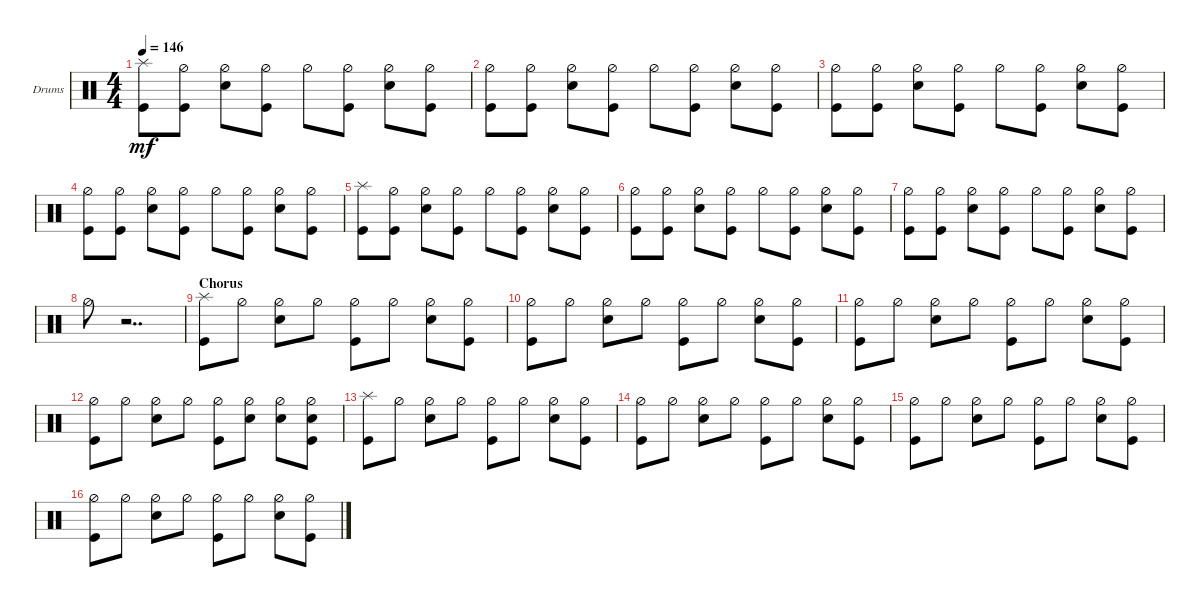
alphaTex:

\defaultSystemsLayout 4
\bracketExtendMode groupsimilarinstruments
\firstSystemTrackNameOrientation horizontal
\otherSystemsTrackNameOrientation horizontal
\track ("Drums" "Drums") {instrument percussion}
\staff {score}
\articulation defaults
\ts (4 4)
\tempo 146
\clef neutral
\ks c
("Kick (hit)" "Splash (hit)").8{dy mf} ("Kick (hit)" "Hi-Hat (half)").8 ("Snare (hit) 2" "Hi-Hat (half)").8 ("Kick (hit)" "Hi-Hat (half)").8 "Hi-Hat (half)".8 ("Kick (hit)" "Hi-Hat (half)").8 ("Snare (hit) 2" "Hi-Hat (half)").8 ("Kick (hit)" "Hi-Hat (half)").8 |
("Kick (hit)" "Hi-Hat (half)").8 ("Kick (hit)" "Hi-Hat (half)").8 ("Snare (hit) 2" "Hi-Hat (half)").8 ("Kick (hit)" "Hi-Hat (half)").8 "Hi-Hat (half)".8 ("Kick (hit)" "Hi-Hat (half)").8 ("Snare (hit) 2" "Hi-Hat (half)").8 ("Kick (hit)" "Hi-Hat (half)").8 |
("Kick (hit)" "Hi-Hat (half)").8 ("Kick (hit)" "Hi-Hat (half)").8 ("Snare (hit) 2" "Hi-Hat (half)").8 ("Kick (hit)" "Hi-Hat (half)").8 "Hi-Hat (half)".8 ("Kick (hit)" "Hi-Hat (half)").8 ("Snare (hit) 2" "Hi-Hat (half)").8 ("Kick (hit)" "Hi-Hat (half)").8 |
("Kick (hit)" "Hi-Hat (half)").8 ("Kick (hit)" "Hi-Hat (half)").8 ("Snare (hit) 2" "Hi-Hat (half)").8 ("Kick (hit)" "Hi-Hat (half)").8 "Hi-Hat (half)".8 ("Kick (hit)" "Hi-Hat (half)").8 ("Snare (hit) 2" "Hi-Hat (half)").8 ("Kick (hit)" "Hi-Hat (half)").8 |
("Kick (hit)" "Splash (hit)").8 ("Kick (hit)" "Hi-Hat (half)").8 ("Snare (hit) 2" "Hi-Hat (half)").8 ("Kick (hit)" "Hi-Hat (half)").8 "Hi-Hat (half)".8 ("Kick (hit)" "Hi-Hat (half)").8 ("Snare (hit) 2" "Hi-Hat (half)").8 ("Kick (hit)" "Hi-Hat (half)").8 |
("Kick (hit)" "Hi-Hat (half)").8 ("Kick (hit)" "Hi-Hat (half)").8 ("Snare (hit) 2" "Hi-Hat (half)").8 ("Kick (hit)" "Hi-Hat (half)").8 "Hi-Hat (half)".8 ("Kick (hit)" "Hi-Hat (half)").8 ("Snare (hit) 2" "Hi-Hat (half)").8 ("Kick (hit)" "Hi-Hat (half)").8 |
("Kick (hit)" "Hi-Hat (half)").8 ("Kick (hit)" "Hi-Hat (half)").8 ("Snare (hit) 2" "Hi-Hat (half)").8 ("Kick (hit)" "Hi-Hat (half)").8 "Hi-Hat (half)".8 ("Kick (hit)" "Hi-Hat (half)").8 ("Snare (hit) 2" "Hi-Hat (half)").8 ("Kick (hit)" "Hi-Hat (half)").8 |
"Hi-Hat (half)".8 r.2{dd} |
\section ("" "Chorus")
("Kick (hit)" "Splash (hit)").8 "Hi-Hat (half)".8 ("Snare (hit) 2" "Hi-Hat (half)").8 "Hi-Hat (half)".8 ("Hi-Hat (half)" "Kick (hit)").8 "Hi-Hat (half)".8 ("Hi-Hat (half)" "Snare (hit) 2").8 ("Hi-Hat (half)" "Kick (hit)").8 |
("Kick (hit)" "Hi-Hat (half)").8 "Hi-Hat (half)".8 ("Snare (hit) 2" "Hi-Hat (half)").8 "Hi-Hat (half)".8 ("Hi-Hat (half)" "Kick (hit)").8 "Hi-Hat (half)".8 ("Hi-Hat (half)" "Snare (hit) 2").8 ("Hi-Hat (half)" "Kick (hit)").8 |
("Kick (hit)" "Hi-Hat (half)").8 "Hi-Hat (half)".8 ("Snare (hit) 2" "Hi-Hat (half)").8 "Hi-Hat (half)".8 ("Hi-Hat (half)" "Kick (hit)").8 "Hi-Hat (half)".8 ("Hi-Hat (half)" "Snare (hit) 2").8 ("Hi-Hat (half)" "Kick (hit)").8 |
("Kick (hit)" "Hi-Hat (half)").8 "Hi-Hat (half)".8 ("Snare (hit) 2" "Hi-Hat (half)").8 "Hi-Hat (half)".8 ("Hi-Hat (half)" "Kick (hit)").8 ("Hi-Hat (half)" "Snare (hit) 2").8 ("Hi-Hat (half)" "Snare (hit) 2").8 ("Hi-Hat (half)" "Kick (hit)" "Snare (hit) 2").8 |
("Kick (hit)" "Splash (hit)").8 "Hi-Hat (half)".8 ("Snare (hit) 2" "Hi-Hat (half)").8 "Hi-Hat (half)".8 ("Hi-Hat (half)" "Kick (hit)").8 "Hi-Hat (half)".8 ("Hi-Hat (half)" "Snare (hit) 2").8 ("Hi-Hat (half)" "Kick (hit)").8 |
("Kick (hit)" "Hi-Hat (half)").8 "Hi-Hat (half)".8 ("Snare (hit) 2" "Hi-Hat (half)").8 "Hi-Hat (half)".8 ("Hi-Hat (half)" "Kick (hit)").8 "Hi-Hat (half)".8 ("Hi-Hat (half)" "Snare (hit) 2").8 ("Hi-Hat (half)" "Kick (hit)").8 |
("Kick (hit)" "Hi-Hat (half)").8 "Hi-Hat (half)".8 ("Snare (hit) 2" "Hi-Hat (half)").8 "Hi-Hat (half)".8 ("Hi-Hat (half)" "Kick (hit)").8 "Hi-Hat (half)".8 ("Hi-Hat (half)" "Snare (hit) 2").8 ("Hi-Hat (half)" "Kick (hit)").8 |
("Kick (hit)" "Hi-Hat (half)").8 "Hi-Hat (half)".8 ("Snare (hit) 2" "Hi-Hat (half)").8 "Hi-Hat (half)".8 ("Hi-Hat (half)" "Kick (hit)").8 "Hi-Hat (half)".8 ("Hi-Hat (half)" "Snare (hit) 2").8 ("Hi-Hat (half)" "Kick (hit)").8
